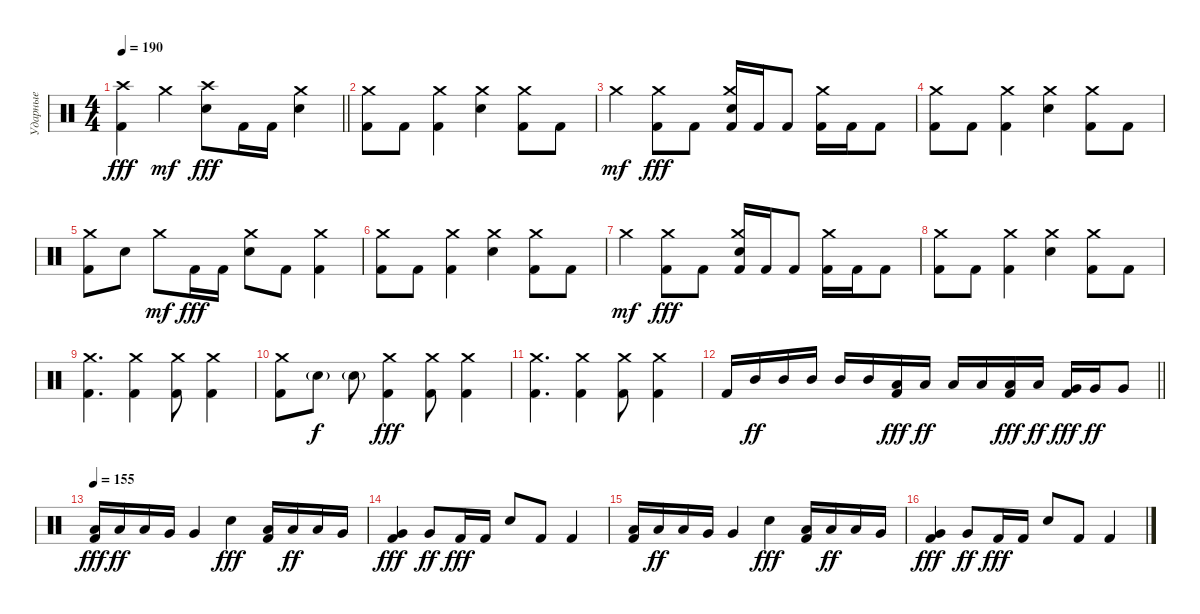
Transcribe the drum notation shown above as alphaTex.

\track ("Ударные" "Ударные") {instrument percussion}
\staff {score}
\articulation defaults
\ts (4 4)
\tempo 190
\clef neutral
\barLineRight lightlight
\ks c
("Crash high (hit)" "Kick (hit) 2").4{dy fff} "Crash medium (hit)".4{dy mf} ("Crash high (hit)" "Electric Snare (hit)").8{dy fff} "Kick (hit) 2".16 "Kick (hit) 2".16 ("Crash medium (hit)" "Electric Snare (hit)").4 |
\section ("" "")
("Crash medium (hit)" "Kick (hit) 2").8 "Kick (hit) 2".8 ("Crash medium (hit)" "Kick (hit) 2").4 ("Crash medium (hit)" "Electric Snare (hit)").4 ("Crash medium (hit)" "Kick (hit) 2").8 "Kick (hit) 2".8 |
"Crash medium (hit)".4{dy mf} ("Crash medium (hit)" "Kick (hit) 2").8{dy fff} "Kick (hit) 2".8 ("Crash medium (hit)" "Electric Snare (hit)" "Kick (hit) 2").16 "Kick (hit) 2".16 "Kick (hit) 2".8 ("Crash medium (hit)" "Kick (hit) 2").16 "Kick (hit) 2".16 "Kick (hit) 2".8 |
("Crash medium (hit)" "Kick (hit) 2").8 "Kick (hit) 2".8 ("Crash medium (hit)" "Kick (hit) 2").4 ("Crash medium (hit)" "Electric Snare (hit)").4 ("Crash medium (hit)" "Kick (hit) 2").8 "Kick (hit) 2".8 |
("Crash medium (hit)" "Kick (hit) 2").8 "Electric Snare (hit)".8 "Crash medium (hit)".8{dy mf} "Kick (hit) 2".16{dy fff} "Kick (hit) 2".16 ("Crash medium (hit)" "Electric Snare (hit)").8 "Kick (hit) 2".8 ("Crash medium (hit)" "Kick (hit) 2").4 |
("Crash medium (hit)" "Kick (hit) 2").8 "Kick (hit) 2".8 ("Crash medium (hit)" "Kick (hit) 2").4 ("Crash medium (hit)" "Electric Snare (hit)").4 ("Crash medium (hit)" "Kick (hit) 2").8 "Kick (hit) 2".8 |
"Crash medium (hit)".4{dy mf} ("Crash medium (hit)" "Kick (hit) 2").8{dy fff} "Kick (hit) 2".8 ("Crash medium (hit)" "Electric Snare (hit)" "Kick (hit) 2").16 "Kick (hit) 2".16 "Kick (hit) 2".8 ("Crash medium (hit)" "Kick (hit) 2").16 "Kick (hit) 2".16 "Kick (hit) 2".8 |
("Crash medium (hit)" "Kick (hit) 2").8 "Kick (hit) 2".8 ("Crash medium (hit)" "Kick (hit) 2").4 ("Crash medium (hit)" "Electric Snare (hit)").4 ("Crash medium (hit)" "Kick (hit) 2").8 "Kick (hit) 2".8 |
("Crash medium (hit)" "Kick (hit) 2").4{d} ("Crash medium (hit)" "Kick (hit) 2").4 ("Crash medium (hit)" "Kick (hit) 2").8 ("Crash medium (hit)" "Kick (hit) 2").4 |
("Crash medium (hit)" "Kick (hit) 2").8 "Electric Snare (hit)"{g}.8{dy f} "Electric Snare (hit)"{g}.8 ("Crash medium (hit)" "Kick (hit) 2").4{dy fff} ("Crash medium (hit)" "Kick (hit) 2").8 ("Crash medium (hit)" "Kick (hit) 2").4 |
("Crash medium (hit)" "Kick (hit) 2").4{d} ("Crash medium (hit)" "Kick (hit) 2").4 ("Crash medium (hit)" "Kick (hit) 2").8 ("Crash medium (hit)" "Kick (hit) 2").4 |
\barLineRight lightlight "Kick (hit) 2".16 "Mid Tom (hit)".16{dy ff} "Mid Tom (hit)".16 "Mid Tom (hit)".16 "Mid Tom (hit)".16 "Mid Tom (hit)".16
("Low Tom (hit)" "Kick (hit) 2").16{dy fff} "Low Tom (hit)".16{dy ff} "Low Tom (hit)".16 "Low Tom (hit)".16 ("Low Tom (hit)" "Kick (hit) 2").16{dy fff} "Low Tom (hit)".16{dy ff} ("Very Low Tom (hit)" "Kick (hit) 2").16{dy fff} "Very Low Tom (hit)".16{dy ff} "Very Low Tom (hit)".8 |
\section ("" "")
\tempo 155
("Low Tom (hit)" "Kick (hit) 2").16{dy fff} "Low Tom (hit)".16{dy ff} "Low Tom (hit)".16 "Very Low Tom (hit)".16 "Very Low Tom (hit)".4 "Electric Snare (hit)".4{dy fff} ("Low Tom (hit)" "Kick (hit) 2").16 "Low Tom (hit)".16{dy ff} "Low Tom (hit)".16 "Very Low Tom (hit)".16 |
("Very Low Tom (hit)" "Kick (hit) 2").4{dy fff} "Very Low Tom (hit)".8{dy ff} "Kick (hit) 2".16{dy fff} "Kick (hit) 2".16 "Electric Snare (hit)".8 "Kick (hit) 2".8 "Kick (hit) 2".4 |
("Low Tom (hit)" "Kick (hit) 2").16 "Low Tom (hit)".16{dy ff} "Low Tom (hit)".16 "Very Low Tom (hit)".16 "Very Low Tom (hit)".4 "Electric Snare (hit)".4{dy fff} ("Low Tom (hit)" "Kick (hit) 2").16 "Low Tom (hit)".16{dy ff} "Low Tom (hit)".16 "Very Low Tom (hit)".16 |
("Very Low Tom (hit)" "Kick (hit) 2").4{dy fff} "Very Low Tom (hit)".8{dy ff} "Kick (hit) 2".16{dy fff} "Kick (hit) 2".16 "Electric Snare (hit)".8 "Kick (hit) 2".8 "Kick (hit) 2".4
